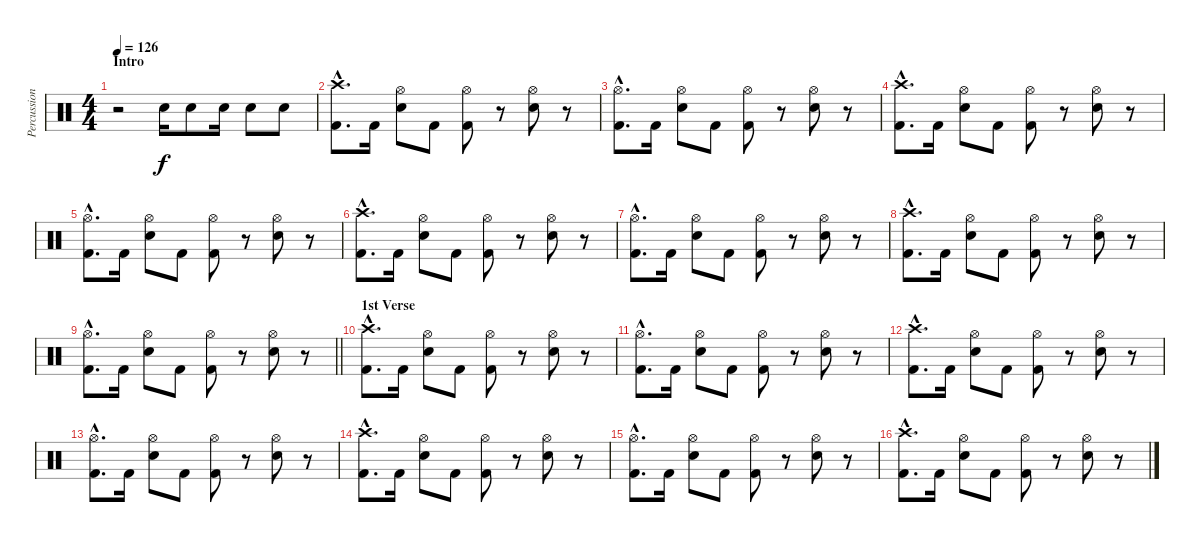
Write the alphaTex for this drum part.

\track ("Percussion" "Percussion") {instrument percussion}
\staff {score}
\articulation defaults
\ts (4 4)
\section ("" "Intro")
\tempo 126
\clef neutral
\ks c
r.2{dy f} "Snare (hit) 2".16 "Snare (hit) 2".8 "Snare (hit) 2".16 "Snare (hit) 2".8 "Snare (hit) 2".8 |
("Crash high (hit)"{hac} "Kick (hit) 2"{hac}).8{d} "Kick (hit) 2".16 ("Hi-Hat (open)" "Snare (hit) 2").8 "Kick (hit) 2".8 ("Hi-Hat (open)" "Kick (hit) 2").8 r.8 ("Hi-Hat (open)" "Snare (hit) 2").8 r.8 |
("Hi-Hat (open)"{hac} "Kick (hit) 2"{hac}).8{d} "Kick (hit) 2".16 ("Hi-Hat (open)" "Snare (hit) 2").8 "Kick (hit) 2".8 ("Hi-Hat (open)" "Kick (hit) 2").8 r.8 ("Hi-Hat (open)" "Snare (hit) 2").8 r.8 |
("Crash high (hit)"{hac} "Kick (hit) 2"{hac}).8{d} "Kick (hit) 2".16 ("Hi-Hat (open)" "Snare (hit) 2").8 "Kick (hit) 2".8 ("Hi-Hat (open)" "Kick (hit) 2").8 r.8 ("Hi-Hat (open)" "Snare (hit) 2").8 r.8 |
("Hi-Hat (open)"{hac} "Kick (hit) 2"{hac}).8{d} "Kick (hit) 2".16 ("Hi-Hat (open)" "Snare (hit) 2").8 "Kick (hit) 2".8 ("Hi-Hat (open)" "Kick (hit) 2").8 r.8 ("Hi-Hat (open)" "Snare (hit) 2").8 r.8 |
("Crash high (hit)"{hac} "Kick (hit) 2"{hac}).8{d} "Kick (hit) 2".16 ("Hi-Hat (open)" "Snare (hit) 2").8 "Kick (hit) 2".8 ("Hi-Hat (open)" "Kick (hit) 2").8 r.8 ("Hi-Hat (open)" "Snare (hit) 2").8 r.8 |
("Hi-Hat (open)"{hac} "Kick (hit) 2"{hac}).8{d} "Kick (hit) 2".16 ("Hi-Hat (open)" "Snare (hit) 2").8 "Kick (hit) 2".8 ("Hi-Hat (open)" "Kick (hit) 2").8 r.8 ("Hi-Hat (open)" "Snare (hit) 2").8 r.8 |
("Crash high (hit)"{hac} "Kick (hit) 2"{hac}).8{d} "Kick (hit) 2".16 ("Hi-Hat (open)" "Snare (hit) 2").8 "Kick (hit) 2".8 ("Hi-Hat (open)" "Kick (hit) 2").8 r.8 ("Hi-Hat (open)" "Snare (hit) 2").8 r.8 |
\barLineRight lightlight
("Hi-Hat (open)"{hac} "Kick (hit) 2"{hac}).8{d} "Kick (hit) 2".16 ("Hi-Hat (open)" "Snare (hit) 2").8 "Kick (hit) 2".8 ("Hi-Hat (open)" "Kick (hit) 2").8 r.8 ("Hi-Hat (open)" "Snare (hit) 2").8 r.8 |
\section ("" "1st Verse")
("Crash high (hit)"{hac} "Kick (hit) 2"{hac}).8{d} "Kick (hit) 2".16 ("Hi-Hat (open)" "Snare (hit) 2").8 "Kick (hit) 2".8 ("Hi-Hat (open)" "Kick (hit) 2").8 r.8 ("Hi-Hat (open)" "Snare (hit) 2").8 r.8 |
("Hi-Hat (open)"{hac} "Kick (hit) 2"{hac}).8{d} "Kick (hit) 2".16 ("Hi-Hat (open)" "Snare (hit) 2").8 "Kick (hit) 2".8 ("Hi-Hat (open)" "Kick (hit) 2").8 r.8 ("Hi-Hat (open)" "Snare (hit) 2").8 r.8 |
("Crash high (hit)"{hac} "Kick (hit) 2"{hac}).8{d} "Kick (hit) 2".16 ("Hi-Hat (open)" "Snare (hit) 2").8 "Kick (hit) 2".8 ("Hi-Hat (open)" "Kick (hit) 2").8 r.8 ("Hi-Hat (open)" "Snare (hit) 2").8 r.8 |
("Hi-Hat (open)"{hac} "Kick (hit) 2"{hac}).8{d} "Kick (hit) 2".16 ("Hi-Hat (open)" "Snare (hit) 2").8 "Kick (hit) 2".8 ("Hi-Hat (open)" "Kick (hit) 2").8 r.8 ("Hi-Hat (open)" "Snare (hit) 2").8 r.8 |
("Crash high (hit)"{hac} "Kick (hit) 2"{hac}).8{d} "Kick (hit) 2".16 ("Hi-Hat (open)" "Snare (hit) 2").8 "Kick (hit) 2".8 ("Hi-Hat (open)" "Kick (hit) 2").8 r.8 ("Hi-Hat (open)" "Snare (hit) 2").8 r.8 |
("Hi-Hat (open)"{hac} "Kick (hit) 2"{hac}).8{d} "Kick (hit) 2".16 ("Hi-Hat (open)" "Snare (hit) 2").8 "Kick (hit) 2".8 ("Hi-Hat (open)" "Kick (hit) 2").8 r.8 ("Hi-Hat (open)" "Snare (hit) 2").8 r.8 |
("Crash high (hit)"{hac} "Kick (hit) 2"{hac}).8{d} "Kick (hit) 2".16 ("Hi-Hat (open)" "Snare (hit) 2").8 "Kick (hit) 2".8 ("Hi-Hat (open)" "Kick (hit) 2").8 r.8 ("Hi-Hat (open)" "Snare (hit) 2").8 r.8
